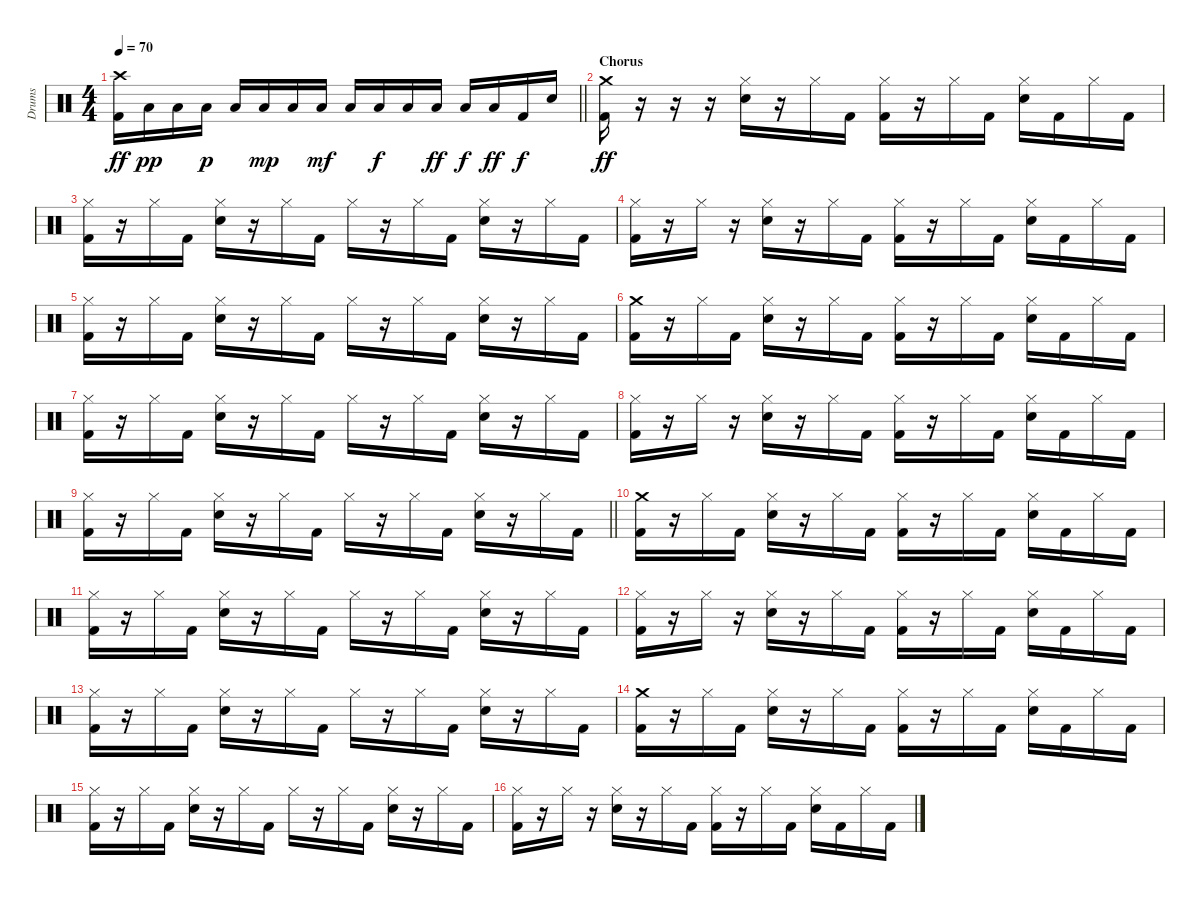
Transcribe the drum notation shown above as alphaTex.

\track ("Drums" "Drums") {instrument percussion}
\staff {score}
\articulation defaults
\ts (4 4)
\tempo 70
\clef neutral
\barLineRight lightlight
\ks c
("Crash high (hit)" "Kick (hit) 2").16{dy ff} "Low Floor Tom (hit)".16{dy pp} "Low Floor Tom (hit)".16 "Low Floor Tom (hit)".16{dy p} "Low Floor Tom (hit)".16 "Low Floor Tom (hit)".16{dy mp} "Low Floor Tom (hit)".16 "Low Floor Tom (hit)".16{dy mf} "Low Floor Tom (hit)".16 "Low Floor Tom (hit)".16{dy f} "Low Floor Tom (hit)".16 "Low Floor Tom (hit)".16{dy ff} "Low Floor Tom (hit)".16{dy f} "Low Floor Tom (hit)".16{dy ff} "Kick (hit) 2".16{dy f} "Snare (hit) 2".16 |
\section ("" "Chorus")
("Crash medium (hit)" "Kick (hit) 2").16{dy ff} r.16 r.16 r.16 ("Hi-Hat (closed)" "Snare (hit) 2").16 r.16 "Hi-Hat (closed)".16 "Kick (hit) 2".16 ("Hi-Hat (closed)" "Kick (hit) 2").16 r.16 "Hi-Hat (closed)".16 "Kick (hit) 2".16 ("Hi-Hat (closed)" "Snare (hit) 2").16 "Kick (hit) 2".16 "Hi-Hat (closed)".16 "Kick (hit) 2".16 |
("Hi-Hat (closed)" "Kick (hit) 2").16 r.16 "Hi-Hat (closed)".16 "Kick (hit) 2".16 ("Hi-Hat (closed)" "Snare (hit) 2").16 r.16 "Hi-Hat (closed)".16 "Kick (hit) 2".16 "Hi-Hat (closed)".16 r.16 "Hi-Hat (closed)".16 "Kick (hit) 2".16 ("Hi-Hat (closed)" "Snare (hit) 2").16 r.16 "Hi-Hat (closed)".16 "Kick (hit) 2".16 |
("Hi-Hat (closed)" "Kick (hit) 2").16 r.16 "Hi-Hat (closed)".16 r.16 ("Hi-Hat (closed)" "Snare (hit) 2").16 r.16 "Hi-Hat (closed)".16 "Kick (hit) 2".16 ("Hi-Hat (closed)" "Kick (hit) 2").16 r.16 "Hi-Hat (closed)".16 "Kick (hit) 2".16 ("Hi-Hat (closed)" "Snare (hit) 2").16 "Kick (hit) 2".16 "Hi-Hat (closed)".16 "Kick (hit) 2".16 |
("Hi-Hat (closed)" "Kick (hit) 2").16 r.16 "Hi-Hat (closed)".16 "Kick (hit) 2".16 ("Hi-Hat (closed)" "Snare (hit) 2").16 r.16 "Hi-Hat (closed)".16 "Kick (hit) 2".16 "Hi-Hat (closed)".16 r.16 "Hi-Hat (closed)".16 "Kick (hit) 2".16 ("Hi-Hat (closed)" "Snare (hit) 2").16 r.16 "Hi-Hat (closed)".16 "Kick (hit) 2".16 |
("Crash medium (hit)" "Kick (hit) 2").16 r.16 "Hi-Hat (closed)".16 "Kick (hit) 2".16 ("Hi-Hat (closed)" "Snare (hit) 2").16 r.16 "Hi-Hat (closed)".16 "Kick (hit) 2".16 ("Hi-Hat (closed)" "Kick (hit) 2").16 r.16 "Hi-Hat (closed)".16 "Kick (hit) 2".16 ("Hi-Hat (closed)" "Snare (hit) 2").16 "Kick (hit) 2".16 "Hi-Hat (closed)".16 "Kick (hit) 2".16 |
("Hi-Hat (closed)" "Kick (hit) 2").16 r.16 "Hi-Hat (closed)".16 "Kick (hit) 2".16 ("Hi-Hat (closed)" "Snare (hit) 2").16 r.16 "Hi-Hat (closed)".16 "Kick (hit) 2".16 "Hi-Hat (closed)".16 r.16 "Hi-Hat (closed)".16 "Kick (hit) 2".16 ("Hi-Hat (closed)" "Snare (hit) 2").16 r.16 "Hi-Hat (closed)".16 "Kick (hit) 2".16 |
("Hi-Hat (closed)" "Kick (hit) 2").16 r.16 "Hi-Hat (closed)".16 r.16 ("Hi-Hat (closed)" "Snare (hit) 2").16 r.16 "Hi-Hat (closed)".16 "Kick (hit) 2".16 ("Hi-Hat (closed)" "Kick (hit) 2").16 r.16 "Hi-Hat (closed)".16 "Kick (hit) 2".16 ("Hi-Hat (closed)" "Snare (hit) 2").16 "Kick (hit) 2".16 "Hi-Hat (closed)".16 "Kick (hit) 2".16 |
\barLineRight lightlight
("Hi-Hat (closed)" "Kick (hit) 2").16 r.16 "Hi-Hat (closed)".16 "Kick (hit) 2".16 ("Hi-Hat (closed)" "Snare (hit) 2").16 r.16 "Hi-Hat (closed)".16 "Kick (hit) 2".16 "Hi-Hat (closed)".16 r.16 "Hi-Hat (closed)".16 "Kick (hit) 2".16 ("Hi-Hat (closed)" "Snare (hit) 2").16 r.16 "Hi-Hat (closed)".16 "Kick (hit) 2".16 |
("Crash medium (hit)" "Kick (hit) 2").16 r.16 "Hi-Hat (closed)".16 "Kick (hit) 2".16 ("Hi-Hat (closed)" "Snare (hit) 2").16 r.16 "Hi-Hat (closed)".16 "Kick (hit) 2".16 ("Hi-Hat (closed)" "Kick (hit) 2").16 r.16 "Hi-Hat (closed)".16 "Kick (hit) 2".16 ("Hi-Hat (closed)" "Snare (hit) 2").16 "Kick (hit) 2".16 "Hi-Hat (closed)".16 "Kick (hit) 2".16 |
("Hi-Hat (closed)" "Kick (hit) 2").16 r.16 "Hi-Hat (closed)".16 "Kick (hit) 2".16 ("Hi-Hat (closed)" "Snare (hit) 2").16 r.16 "Hi-Hat (closed)".16 "Kick (hit) 2".16 "Hi-Hat (closed)".16 r.16 "Hi-Hat (closed)".16 "Kick (hit) 2".16 ("Hi-Hat (closed)" "Snare (hit) 2").16 r.16 "Hi-Hat (closed)".16 "Kick (hit) 2".16 |
("Hi-Hat (closed)" "Kick (hit) 2").16 r.16 "Hi-Hat (closed)".16 r.16 ("Hi-Hat (closed)" "Snare (hit) 2").16 r.16 "Hi-Hat (closed)".16 "Kick (hit) 2".16 ("Hi-Hat (closed)" "Kick (hit) 2").16 r.16 "Hi-Hat (closed)".16 "Kick (hit) 2".16 ("Hi-Hat (closed)" "Snare (hit) 2").16 "Kick (hit) 2".16 "Hi-Hat (closed)".16 "Kick (hit) 2".16 |
("Hi-Hat (closed)" "Kick (hit) 2").16 r.16 "Hi-Hat (closed)".16 "Kick (hit) 2".16 ("Hi-Hat (closed)" "Snare (hit) 2").16 r.16 "Hi-Hat (closed)".16 "Kick (hit) 2".16 "Hi-Hat (closed)".16 r.16 "Hi-Hat (closed)".16 "Kick (hit) 2".16 ("Hi-Hat (closed)" "Snare (hit) 2").16 r.16 "Hi-Hat (closed)".16 "Kick (hit) 2".16 |
("Crash medium (hit)" "Kick (hit) 2").16 r.16 "Hi-Hat (closed)".16 "Kick (hit) 2".16 ("Hi-Hat (closed)" "Snare (hit) 2").16 r.16 "Hi-Hat (closed)".16 "Kick (hit) 2".16 ("Hi-Hat (closed)" "Kick (hit) 2").16 r.16 "Hi-Hat (closed)".16 "Kick (hit) 2".16 ("Hi-Hat (closed)" "Snare (hit) 2").16 "Kick (hit) 2".16 "Hi-Hat (closed)".16 "Kick (hit) 2".16 |
("Hi-Hat (closed)" "Kick (hit) 2").16 r.16 "Hi-Hat (closed)".16 "Kick (hit) 2".16 ("Hi-Hat (closed)" "Snare (hit) 2").16 r.16 "Hi-Hat (closed)".16 "Kick (hit) 2".16 "Hi-Hat (closed)".16 r.16 "Hi-Hat (closed)".16 "Kick (hit) 2".16 ("Hi-Hat (closed)" "Snare (hit) 2").16 r.16 "Hi-Hat (closed)".16 "Kick (hit) 2".16 |
("Hi-Hat (closed)" "Kick (hit) 2").16 r.16 "Hi-Hat (closed)".16 r.16 ("Hi-Hat (closed)" "Snare (hit) 2").16 r.16 "Hi-Hat (closed)".16 "Kick (hit) 2".16 ("Hi-Hat (closed)" "Kick (hit) 2").16 r.16 "Hi-Hat (closed)".16 "Kick (hit) 2".16 ("Hi-Hat (closed)" "Snare (hit) 2").16 "Kick (hit) 2".16 "Hi-Hat (closed)".16 "Kick (hit) 2".16
